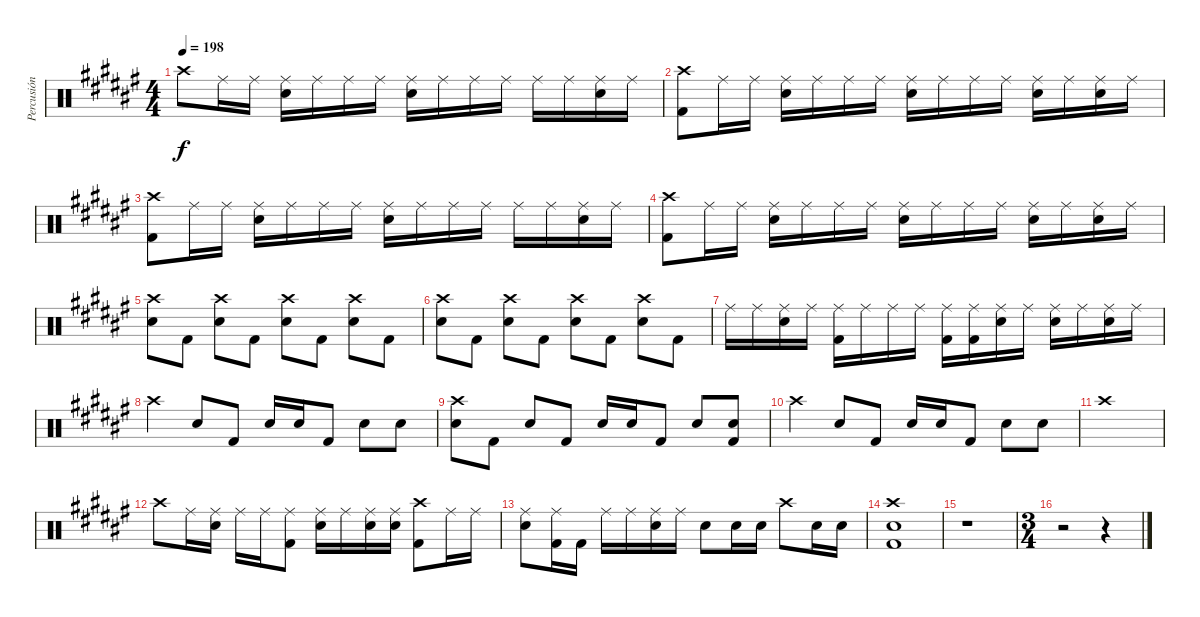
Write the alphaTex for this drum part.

\track ("Percusión" "Percusión") {instrument percussion}
\staff {score}
\articulation defaults
\ts (4 4)
\tempo 198
\clef neutral
\ks d#minor "Crash high (hit)".8{dy f} "Ride (middle)".16 "Ride (middle)".16
("Ride (middle)" "Snare (hit) 2").16 "Ride (middle)".16 "Ride (middle)".16 "Ride (middle)".16 ("Ride (middle)" "Snare (hit) 2").16 "Ride (middle)".16 "Ride (middle)".16 "Ride (middle)".16 "Ride (middle)".16 "Ride (middle)".16 ("Ride (middle)" "Snare (hit) 2").16 "Ride (middle)".16 |
("Crash high (hit)" "Kick (hit) 2").8 "Ride (middle)".16 "Ride (middle)".16 ("Ride (middle)" "Snare (hit) 2").16 "Ride (middle)".16 "Ride (middle)".16 "Ride (middle)".16 ("Ride (middle)" "Snare (hit) 2").16 "Ride (middle)".16 "Ride (middle)".16 "Ride (middle)".16 ("Ride (middle)" "Snare (hit) 2").16 "Ride (middle)".16 ("Ride (middle)" "Snare (hit) 2").16 "Ride (middle)".16 |
("Crash high (hit)" "Kick (hit) 2").8 "Ride (middle)".16 "Ride (middle)".16 ("Ride (middle)" "Snare (hit) 2").16 "Ride (middle)".16 "Ride (middle)".16 "Ride (middle)".16 ("Ride (middle)" "Snare (hit) 2").16 "Ride (middle)".16 "Ride (middle)".16 "Ride (middle)".16 "Ride (middle)".16 "Ride (middle)".16 ("Ride (middle)" "Snare (hit) 2").16 "Ride (middle)".16 |
("Crash high (hit)" "Kick (hit) 2").8 "Ride (middle)".16 "Ride (middle)".16 ("Ride (middle)" "Snare (hit) 2").16 "Ride (middle)".16 "Ride (middle)".16 "Ride (middle)".16 ("Ride (middle)" "Snare (hit) 2").16 "Ride (middle)".16 "Ride (middle)".16 "Ride (middle)".16 ("Ride (middle)" "Snare (hit) 2").16 "Ride (middle)".16 ("Ride (middle)" "Snare (hit) 2").16 "Ride (middle)".16 |
("Crash high (hit)" "Snare (hit) 2").8 "Kick (hit) 2".8 ("Crash high (hit)" "Snare (hit) 2").8 "Kick (hit) 2".8 ("Crash high (hit)" "Snare (hit) 2").8 "Kick (hit) 2".8 ("Crash high (hit)" "Snare (hit) 2").8 "Kick (hit) 2".8 |
("Crash high (hit)" "Snare (hit) 2").8 "Kick (hit) 2".8 ("Crash high (hit)" "Snare (hit) 2").8 "Kick (hit) 2".8 ("Crash high (hit)" "Snare (hit) 2").8 "Kick (hit) 2".8 ("Crash high (hit)" "Snare (hit) 2").8 "Kick (hit) 2".8 |
"Ride (middle)".16 "Ride (middle)".16 ("Ride (middle)" "Snare (hit) 2").16 "Ride (middle)".16 ("Ride (middle)" "Kick (hit) 2").16 "Ride (middle)".16 "Ride (middle)".16 "Ride (middle)".16 ("Ride (middle)" "Kick (hit) 2").16 ("Ride (middle)" "Kick (hit) 2").16 ("Ride (middle)" "Snare (hit) 2").16 "Ride (middle)".16 ("Ride (middle)" "Snare (hit) 2").16 "Ride (middle)".16 ("Ride (middle)" "Snare (hit) 2").16 "Ride (middle)".16 |
"Crash high (hit)".4 "Snare (hit) 2".8 "Kick (hit) 2".8 "Snare (hit) 2".16 "Snare (hit) 2".16 "Kick (hit) 2".8 "Snare (hit) 2".8 "Snare (hit) 2".8 |
("Crash high (hit)" "Snare (hit) 2").8 "Kick (hit) 2".8 "Snare (hit) 2".8 "Kick (hit) 2".8 "Snare (hit) 2".16 "Snare (hit) 2".16 "Kick (hit) 2".8 "Snare (hit) 2".8 ("Snare (hit) 2" "Kick (hit) 2").8 |
"Crash high (hit)".4 "Snare (hit) 2".8 "Kick (hit) 2".8 "Snare (hit) 2".16 "Snare (hit) 2".16 "Kick (hit) 2".8 "Snare (hit) 2".8 "Snare (hit) 2".8 |
"Crash high (hit)".1 |
"Crash high (hit)".8 "Ride (middle)".16 ("Ride (middle)" "Snare (hit) 2").16 "Ride (middle)".16 "Ride (middle)".16 ("Ride (middle)" "Kick (hit) 2").8 ("Ride (middle)" "Snare (hit) 2").16 "Ride (middle)".16 ("Ride (middle)" "Snare (hit) 2").16 ("Ride (middle)" "Snare (hit) 2").16 ("Crash high (hit)" "Kick (hit) 2").8 "Ride (middle)".16 "Ride (middle)".16 |
("Ride (middle)" "Snare (hit) 2").8 ("Ride (middle)" "Kick (hit) 2").16 "Kick (hit) 2".16 "Ride (middle)".16 "Ride (middle)".16 ("Ride (middle)" "Snare (hit) 2").16 "Ride (middle)".16 "Snare (hit) 2".8 "Snare (hit) 2".16 "Snare (hit) 2".16 "Crash high (hit)".8 "Snare (hit) 2".16 "Snare (hit) 2".16 |
("Crash high (hit)" "Snare (hit) 2" "Kick (hit) 2").1 |
r.1 |
\ts (3 4)
r.2 r.4
